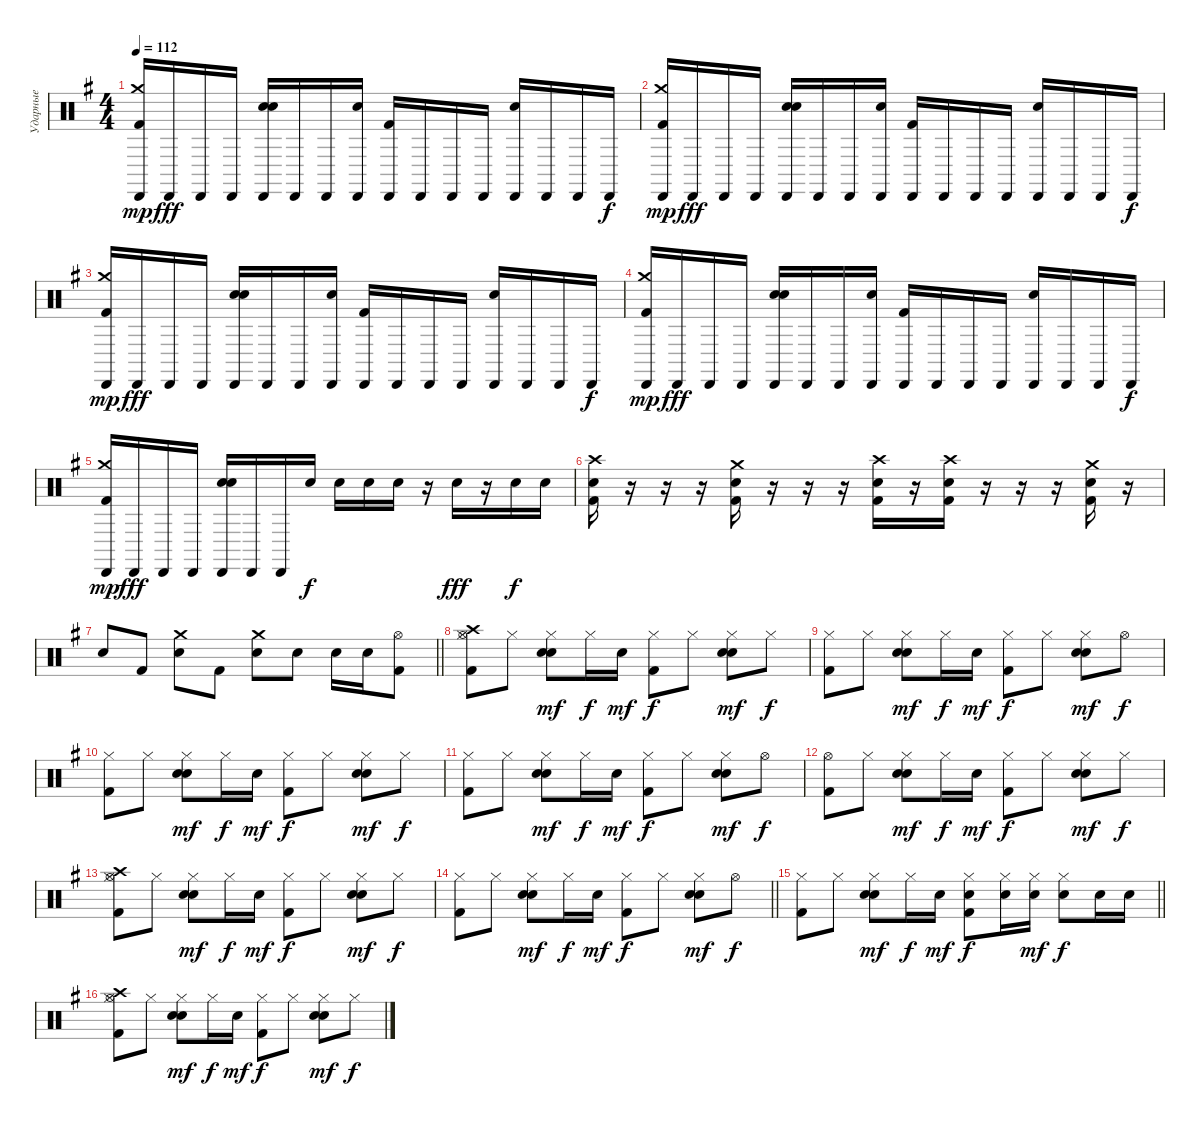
\track ("Ударные" "Ударные") {instrument percussion}
\staff {score}
\articulation defaults
\ts (4 4)
\tempo 112
\clef neutral
\ks eminor
("Cabasa (hit)" "Crash medium (hit)" "Kick (hit) 2").16{dy mp} "Cabasa (hit)".16{dy fff} "Cabasa (hit)".16 "Cabasa (hit)".16 ("Cabasa (hit)" "Electric Snare (hit)" "Snare (hit) 2").16 "Cabasa (hit)".16 "Cabasa (hit)".16 ("Cabasa (hit)" "Snare (hit) 2").16 ("Cabasa (hit)" "Kick (hit) 2").16 "Cabasa (hit)".16 "Cabasa (hit)".16 "Cabasa (hit)".16 ("Cabasa (hit)" "Snare (hit) 2").16 "Cabasa (hit)".16 "Cabasa (hit)".16 "Cabasa (hit)".16{dy f} |
("Cabasa (hit)" "Crash medium (hit)" "Kick (hit) 2").16{dy mp} "Cabasa (hit)".16{dy fff} "Cabasa (hit)".16 "Cabasa (hit)".16 ("Cabasa (hit)" "Electric Snare (hit)" "Snare (hit) 2").16 "Cabasa (hit)".16 "Cabasa (hit)".16 ("Cabasa (hit)" "Snare (hit) 2").16 ("Cabasa (hit)" "Kick (hit) 2").16 "Cabasa (hit)".16 "Cabasa (hit)".16 "Cabasa (hit)".16 ("Cabasa (hit)" "Snare (hit) 2").16 "Cabasa (hit)".16 "Cabasa (hit)".16 "Cabasa (hit)".16{dy f} |
("Cabasa (hit)" "Crash medium (hit)" "Kick (hit) 2").16{dy mp} "Cabasa (hit)".16{dy fff} "Cabasa (hit)".16 "Cabasa (hit)".16 ("Cabasa (hit)" "Electric Snare (hit)" "Snare (hit) 2").16 "Cabasa (hit)".16 "Cabasa (hit)".16 ("Cabasa (hit)" "Snare (hit) 2").16 ("Cabasa (hit)" "Kick (hit) 2").16 "Cabasa (hit)".16 "Cabasa (hit)".16 "Cabasa (hit)".16 ("Cabasa (hit)" "Snare (hit) 2").16 "Cabasa (hit)".16 "Cabasa (hit)".16 "Cabasa (hit)".16{dy f} |
("Cabasa (hit)" "Crash medium (hit)" "Kick (hit) 2").16{dy mp} "Cabasa (hit)".16{dy fff} "Cabasa (hit)".16 "Cabasa (hit)".16 ("Cabasa (hit)" "Electric Snare (hit)" "Snare (hit) 2").16 "Cabasa (hit)".16 "Cabasa (hit)".16 ("Cabasa (hit)" "Snare (hit) 2").16 ("Cabasa (hit)" "Kick (hit) 2").16 "Cabasa (hit)".16 "Cabasa (hit)".16 "Cabasa (hit)".16 ("Cabasa (hit)" "Snare (hit) 2").16 "Cabasa (hit)".16 "Cabasa (hit)".16 "Cabasa (hit)".16{dy f} |
("Cabasa (hit)" "Crash medium (hit)" "Kick (hit) 2").16{dy mp} "Cabasa (hit)".16{dy fff} "Cabasa (hit)".16 "Cabasa (hit)".16 ("Cabasa (hit)" "Electric Snare (hit)" "Snare (hit) 2").16 "Cabasa (hit)".16 "Cabasa (hit)".16 "Snare (hit) 2".16{dy f} "Snare (hit) 2".16 "Snare (hit) 2".16 "Snare (hit) 2".16 r.16 "Snare (hit) 2".16{dy fff} r.16 "Snare (hit) 2".16{dy f} "Snare (hit) 2".16 |
("Crash high (hit)" "Electric Snare (hit)" "Kick (hit) 2").16 r.16 r.16 r.16 ("Crash medium (hit)" "Electric Snare (hit)" "Kick (hit) 2").16 r.16 r.16 r.16 ("Crash high (hit)" "Electric Snare (hit)" "Kick (hit) 2").16 r.16 ("Crash high (hit)" "Electric Snare (hit)" "Kick (hit) 2").16 r.16 r.16 r.16 ("Crash medium (hit)" "Electric Snare (hit)" "Kick (hit) 2").16 r.16 |
\barLineRight lightlight "Snare (hit) 2".8 "Kick (hit) 2".8
("Snare (hit) 2" "Crash medium (hit)").8 "Kick (hit) 2".8 ("Snare (hit) 2" "Crash medium (hit)").8 "Snare (hit) 2".8 "Snare (hit) 2".16 "Snare (hit) 2".16 ("Kick (hit) 2" "Hi-Hat (open)").8 |
("Hi-Hat (closed)" "Crash high (hit)" "Kick (hit) 2" "Hi-Hat (open)").8 "Hi-Hat (closed)".8 ("Hi-Hat (closed)" "Electric Snare (hit)" "Snare (hit) 2").8{dy mf} "Hi-Hat (closed)".16{dy f} "Snare (hit) 2".16{dy mf} ("Hi-Hat (closed)" "Kick (hit) 2").8{dy f} "Hi-Hat (closed)".8 ("Hi-Hat (closed)" "Electric Snare (hit)" "Snare (hit) 2").8{dy mf} "Hi-Hat (closed)".8{dy f} |
("Hi-Hat (closed)" "Kick (hit) 2").8 "Hi-Hat (closed)".8 ("Hi-Hat (closed)" "Electric Snare (hit)" "Snare (hit) 2").8{dy mf} "Hi-Hat (closed)".16{dy f} "Snare (hit) 2".16{dy mf} ("Hi-Hat (closed)" "Kick (hit) 2").8{dy f} "Hi-Hat (closed)".8 ("Hi-Hat (closed)" "Electric Snare (hit)" "Snare (hit) 2").8{dy mf} "Hi-Hat (open)".8{dy f} |
("Hi-Hat (closed)" "Kick (hit) 2").8 "Hi-Hat (closed)".8 ("Hi-Hat (closed)" "Electric Snare (hit)" "Snare (hit) 2").8{dy mf} "Hi-Hat (closed)".16{dy f} "Snare (hit) 2".16{dy mf} ("Hi-Hat (closed)" "Kick (hit) 2").8{dy f} "Hi-Hat (closed)".8 ("Hi-Hat (closed)" "Electric Snare (hit)" "Snare (hit) 2").8{dy mf} "Hi-Hat (closed)".8{dy f} |
("Hi-Hat (closed)" "Kick (hit) 2").8 "Hi-Hat (closed)".8 ("Hi-Hat (closed)" "Electric Snare (hit)" "Snare (hit) 2").8{dy mf} "Hi-Hat (closed)".16{dy f} "Snare (hit) 2".16{dy mf} ("Hi-Hat (closed)" "Kick (hit) 2").8{dy f} "Hi-Hat (closed)".8 ("Hi-Hat (closed)" "Electric Snare (hit)" "Snare (hit) 2").8{dy mf} "Hi-Hat (open)".8{dy f} |
("Hi-Hat (open)" "Kick (hit) 2").8 "Hi-Hat (closed)".8 ("Hi-Hat (closed)" "Electric Snare (hit)" "Snare (hit) 2").8{dy mf} "Hi-Hat (closed)".16{dy f} "Snare (hit) 2".16{dy mf} ("Hi-Hat (closed)" "Kick (hit) 2").8{dy f} "Hi-Hat (closed)".8 ("Hi-Hat (closed)" "Electric Snare (hit)" "Snare (hit) 2").8{dy mf} "Hi-Hat (closed)".8{dy f} |
("Hi-Hat (closed)" "Crash high (hit)" "Kick (hit) 2" "Hi-Hat (open)").8 "Hi-Hat (closed)".8 ("Hi-Hat (closed)" "Electric Snare (hit)" "Snare (hit) 2").8{dy mf} "Hi-Hat (closed)".16{dy f} "Snare (hit) 2".16{dy mf} ("Hi-Hat (closed)" "Kick (hit) 2").8{dy f} "Hi-Hat (closed)".8 ("Hi-Hat (closed)" "Electric Snare (hit)" "Snare (hit) 2").8{dy mf} "Hi-Hat (closed)".8{dy f} |
\barLineRight lightlight
("Hi-Hat (closed)" "Kick (hit) 2").8 "Hi-Hat (closed)".8 ("Hi-Hat (closed)" "Electric Snare (hit)" "Snare (hit) 2").8{dy mf} "Hi-Hat (closed)".16{dy f} "Snare (hit) 2".16{dy mf} ("Hi-Hat (closed)" "Kick (hit) 2").8{dy f} "Hi-Hat (closed)".8 ("Hi-Hat (closed)" "Electric Snare (hit)" "Snare (hit) 2").8{dy mf} "Hi-Hat (open)".8{dy f} |
\barLineRight lightlight
("Hi-Hat (closed)" "Kick (hit) 2").8 "Hi-Hat (closed)".8 ("Hi-Hat (closed)" "Electric Snare (hit)" "Snare (hit) 2").8{dy mf} "Hi-Hat (closed)".16{dy f} "Snare (hit) 2".16{dy mf} ("Hi-Hat (closed)" "Kick (hit) 2" "Snare (hit) 2").8{dy f} ("Hi-Hat (closed)" "Snare (hit) 2").16 ("Hi-Hat (closed)" "Snare (hit) 2").16{dy mf} ("Hi-Hat (closed)" "Snare (hit) 2").8{dy f} "Snare (hit) 2".16 "Snare (hit) 2".16 |
("Hi-Hat (closed)" "Crash high (hit)" "Kick (hit) 2" "Hi-Hat (open)").8 "Hi-Hat (closed)".8 ("Hi-Hat (closed)" "Electric Snare (hit)" "Snare (hit) 2").8{dy mf} "Hi-Hat (closed)".16{dy f} "Snare (hit) 2".16{dy mf} ("Hi-Hat (closed)" "Kick (hit) 2").8{dy f} "Hi-Hat (closed)".8 ("Hi-Hat (closed)" "Electric Snare (hit)" "Snare (hit) 2").8{dy mf} "Hi-Hat (closed)".8{dy f}
